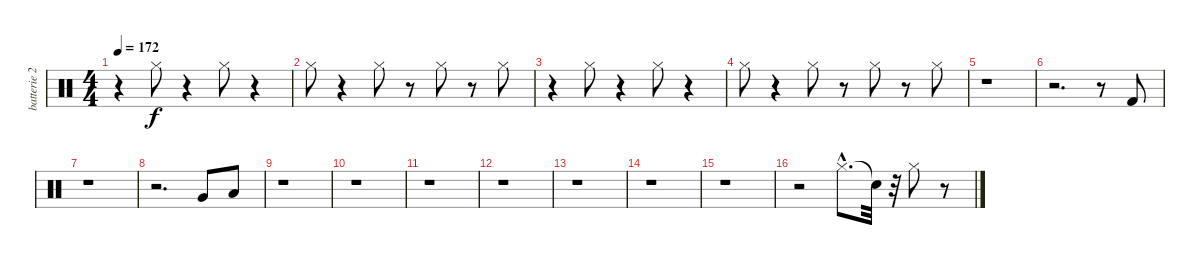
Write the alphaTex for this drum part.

\track ("batterie 2" "batterie 2") {instrument percussion}
\staff {score}
\articulation defaults
\ts (4 4)
\tempo 172
\clef neutral
\ks c
r.4{dy f} "Hi-Hat (closed)".8 r.4 "Hi-Hat (closed)".8 r.4 |
"Hi-Hat (closed)".8 r.4 "Hi-Hat (closed)".8 r.8 "Hi-Hat (closed)".8 r.8 "Hi-Hat (closed)".8 |
r.4 "Hi-Hat (closed)".8 r.4 "Hi-Hat (closed)".8 r.4 |
"Hi-Hat (closed)".8 r.4 "Hi-Hat (closed)".8 r.8 "Hi-Hat (closed)".8 r.8 "Hi-Hat (closed)".8 |
r.1 |
r.2{d} r.8 "Kick (hit) 2".8 |
r.1 |
r.2{d} "Very Low Tom (hit)".8 "Low Floor Tom (hit)".8 |
r.1 |
r.1 |
r.1 |
r.1 |
r.1 |
r.1 |
r.1 |
r.2 "Hi-Hat (closed)"{hac}.8{d} "Snare (hit)"{t}.32 r.32 "Hi-Hat (closed)".8 r.8
